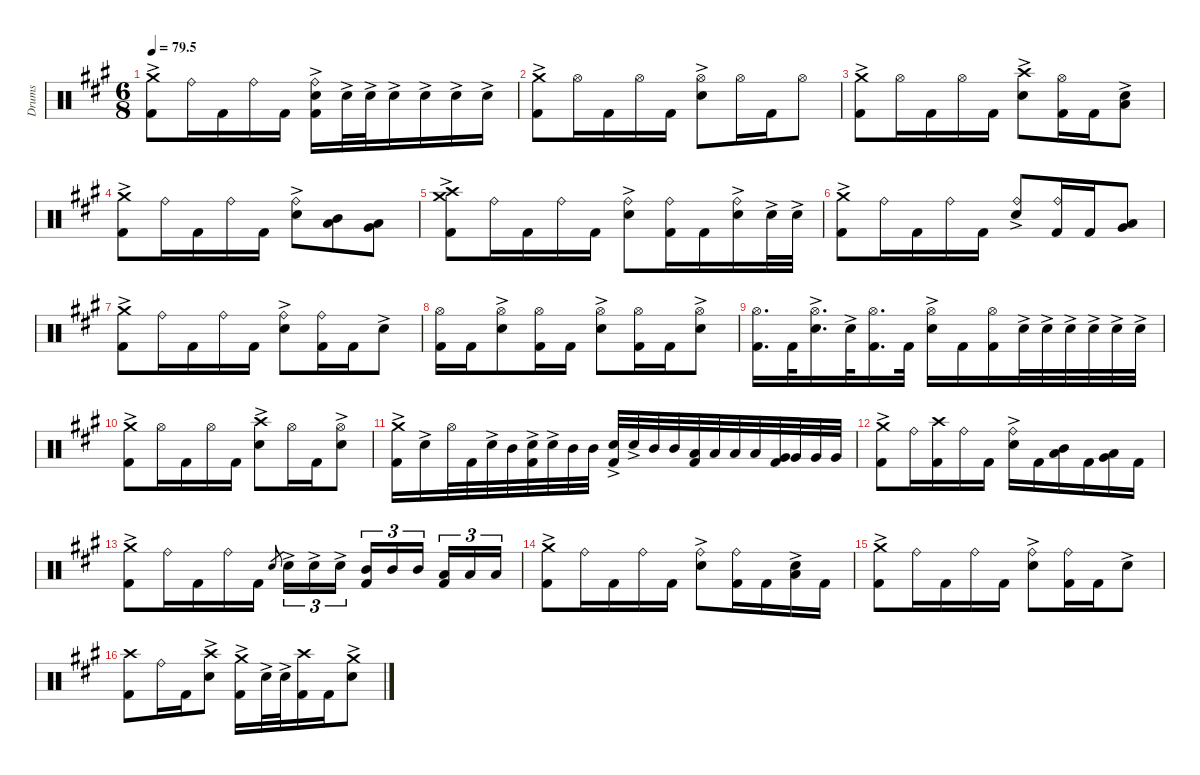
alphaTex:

\defaultSystemsLayout 4
\hideDynamics
\bracketExtendMode nobrackets
\otherSystemsTrackNameOrientation horizontal
\track ("Drumkit-show" "Drums") {mute instrument percussion}
\staff {score}
\articulation defaults
\ts (6 8)
\tempo
79.5
\accidentals auto
\clef neutral
\ottava regular
\simile none
\ks a
("Crash medium (hit)"{ac acc forcenatural} "Kick (hit) 2"{acc forcenatural}).8{dy f beam Down} "Ride (bell)"{acc forcenatural}.16{beam Down} "Kick (hit) 2"{acc forcenatural}.16{beam Down} "Ride (bell)"{acc forcenatural}.16{beam Down} "Kick (hit) 2"{acc forcenatural}.16{beam Down} ("Ride (bell)"{acc forcenatural} "Snare (hit) 2"{ac acc forcenatural} "Kick (hit) 2"{acc forcenatural}).16{beam Down} "Snare (hit) 2"{ac acc forcenatural}.32{beam Down} "Snare (hit) 2"{ac acc forcenatural}.32{beam Down} "Snare (hit) 2"{ac acc forcenatural}.16{beam Down} "Snare (hit) 2"{ac acc forcenatural}.16{beam Down} "Snare (hit) 2"{ac acc forcenatural}.16{beam Down} "Snare (hit) 2"{ac acc forcenatural}.16{beam Down} |
("Crash medium (hit)"{ac acc forcenatural} "Kick (hit) 2"{acc forcenatural}).8{beam Down} "Hi-Hat (open)"{acc forcenatural}.16{beam Down} "Kick (hit) 2"{acc forcenatural}.16{beam Down} "Hi-Hat (open)"{acc forcenatural}.16{beam Down} "Kick (hit) 2"{acc forcenatural}.16{beam Down} ("Hi-Hat (open)"{acc forcenatural} "Snare (hit) 2"{ac acc forcenatural}).8{beam Down} "Hi-Hat (open)"{acc forcenatural}.16{beam Down} "Kick (hit) 2"{acc forcenatural}.16{beam Down} "Hi-Hat (open)"{acc forcenatural}.8{beam Down} |
("Crash medium (hit)"{ac acc forcenatural} "Kick (hit) 2"{acc forcenatural}).8{beam Down} "Hi-Hat (open)"{acc forcenatural}.16{beam Down} "Kick (hit) 2"{acc forcenatural}.16{beam Down} "Hi-Hat (open)"{acc forcenatural}.16{beam Down} "Kick (hit) 2"{acc forcenatural}.16{beam Down} ("Crash high (hit)"{acc forcenatural} "Snare (hit) 2"{ac acc forcenatural}).8{beam Down} ("Hi-Hat (open)"{acc forcenatural} "Kick (hit) 2"{acc forcenatural}).16{beam Down} "Kick (hit) 2"{acc forcenatural}.16{beam Down} ("Snare (hit) 2"{ac acc forcenatural} "Low Tom (hit)"{acc forcenatural}).8{beam Down} |
("Crash medium (hit)"{ac acc forcenatural} "Kick (hit) 2"{acc forcenatural}).8{beam Down} "Ride (bell)"{acc forcenatural}.16{beam Down} "Kick (hit) 2"{acc forcenatural}.16{beam Down} "Ride (bell)"{acc forcenatural}.16{beam Down} "Kick (hit) 2"{acc forcenatural}.16{beam Down} ("Ride (bell)"{acc forcenatural} "Snare (hit) 2"{ac acc forcenatural}).8{beam Down} ("Mid Tom (hit)"{acc forcenatural} "Low Tom (hit)"{acc forcenatural}).8{beam Down} ("Low Tom (hit)"{acc forcenatural} "Very Low Tom (hit)"{acc forcenatural}).8{beam Down} |
("Crash medium (hit)"{ac acc forcenatural} "Crash high (hit)"{acc forcenatural} "Kick (hit) 2"{acc forcenatural}).8{beam Down} "Ride (bell)"{acc forcenatural}.16{beam Down} "Kick (hit) 2"{acc forcenatural}.16{beam Down} "Ride (bell)"{acc forcenatural}.16{beam Down} "Kick (hit) 2"{acc forcenatural}.16{beam Down} ("Ride (bell)"{acc forcenatural} "Snare (hit) 2"{ac acc forcenatural}).8{beam Down} ("Ride (bell)"{acc forcenatural} "Kick (hit) 2"{acc forcenatural}).16{beam Down} "Kick (hit) 2"{acc forcenatural}.16{beam Down} ("Ride (bell)"{acc forcenatural} "Snare (hit) 2"{ac acc forcenatural}).16{beam Down} "Snare (hit) 2"{ac acc forcenatural}.32{beam Down} "Snare (hit) 2"{ac acc forcenatural}.32{beam Down} |
("Crash medium (hit)"{ac acc forcenatural} "Kick (hit) 2"{acc forcenatural}).8{beam Down} "Ride (bell)"{acc forcenatural}.16{beam Down} "Kick (hit) 2"{acc forcenatural}.16{beam Down} "Ride (bell)"{acc forcenatural}.16{beam Down} "Kick (hit) 2"{acc forcenatural}.16{beam Down} ("Ride (bell)"{acc forcenatural} "Snare (hit) 2"{ac acc forcenatural}).8{beam Up} ("Ride (bell)"{acc forcenatural} "Kick (hit) 2"{acc forcenatural}).16{beam Up} "Kick (hit) 2"{acc forcenatural}.16{beam Up} ("Low Tom (hit)"{acc forcenatural} "Very Low Tom (hit)"{acc forcenatural}).8{beam Up} |
("Crash medium (hit)"{ac acc forcenatural} "Kick (hit) 2"{acc forcenatural}).8{beam Down} "Ride (bell)"{acc forcenatural}.16{beam Down} "Kick (hit) 2"{acc forcenatural}.16{beam Down} "Ride (bell)"{acc forcenatural}.16{beam Down} "Kick (hit) 2"{acc forcenatural}.16{beam Down} ("Ride (bell)"{acc forcenatural} "Snare (hit) 2"{ac acc forcenatural}).8{beam Down} ("Ride (bell)"{acc forcenatural} "Kick (hit) 2"{acc forcenatural}).16{beam Down} "Kick (hit) 2"{acc forcenatural}.16{beam Down} "Snare (hit) 2"{ac acc forcenatural}.8{beam Down} |
("Hi-Hat (open)"{acc forcenatural} "Kick (hit) 2"{acc forcenatural}).16{beam Down} "Kick (hit) 2"{acc forcenatural}.16{beam Down} ("Hi-Hat (open)"{acc forcenatural} "Snare (hit) 2"{ac acc forcenatural}).8{beam Down} ("Hi-Hat (open)"{acc forcenatural} "Kick (hit) 2"{acc forcenatural}).16{beam Down} "Kick (hit) 2"{acc forcenatural}.16{beam Down} ("Hi-Hat (open)"{acc forcenatural} "Snare (hit) 2"{ac acc forcenatural}).8{beam Down} ("Hi-Hat (open)"{acc forcenatural} "Kick (hit) 2"{acc forcenatural}).16{beam Down} "Kick (hit) 2"{acc forcenatural}.16{beam Down} ("Hi-Hat (open)"{acc forcenatural} "Snare (hit) 2"{ac acc forcenatural}).8{beam Down} |
("Hi-Hat (open)"{acc forcenatural} "Kick (hit) 2"{acc forcenatural}).16{d beam Down} "Kick (hit) 2"{acc forcenatural}.32{beam Down} ("Hi-Hat (open)"{acc forcenatural} "Snare (hit) 2"{ac acc forcenatural}).16{d beam Down} "Snare (hit) 2"{ac acc forcenatural}.32{beam Down} ("Hi-Hat (open)"{acc forcenatural} "Kick (hit) 2"{acc forcenatural}).16{d beam Down} "Kick (hit) 2"{acc forcenatural}.32{beam Down} ("Hi-Hat (open)"{acc forcenatural} "Snare (hit) 2"{ac acc forcenatural}).16{beam Down} "Kick (hit) 2"{acc forcenatural}.16{beam Down} ("Hi-Hat (open)"{acc forcenatural} "Kick (hit) 2"{acc forcenatural}).16{beam Down} "Snare (hit) 2"{ac acc forcenatural}.32{beam Down} "Snare (hit) 2"{ac acc forcenatural}.32{beam Down} "Snare (hit) 2"{ac acc forcenatural}.32{beam Down} "Snare (hit) 2"{ac acc forcenatural}.32{beam Down} "Snare (hit) 2"{ac acc forcenatural}.32{beam Down} "Snare (hit) 2"{ac acc forcenatural}.32{beam Down} |
("Crash medium (hit)"{ac acc forcenatural} "Kick (hit) 2"{acc forcenatural}).8{beam Down} "Hi-Hat (open)"{acc forcenatural}.16{beam Down} "Kick (hit) 2"{acc forcenatural}.16{beam Down} "Hi-Hat (open)"{acc forcenatural}.16{beam Down} "Kick (hit) 2"{acc forcenatural}.16{beam Down} ("Crash high (hit)"{acc forcenatural} "Snare (hit) 2"{ac acc forcenatural}).8{beam Down} "Hi-Hat (open)"{acc forcenatural}.16{beam Down} "Kick (hit) 2"{acc forcenatural}.16{beam Down} ("Hi-Hat (open)"{acc forcenatural} "Snare (hit) 2"{ac acc forcenatural}).8{beam Down} |
("Crash medium (hit)"{ac acc forcenatural} "Kick (hit) 2"{acc forcenatural}).16{beam Down} "Snare (hit) 2"{ac acc forcenatural}.16{beam Down} "Hi-Hat (open)"{acc forcenatural}.32{beam Down} "Kick (hit) 2"{acc forcenatural}.32{beam Down} "Snare (hit) 2"{ac acc forcenatural}.32{beam Down} "Mid Tom (hit)"{acc forcenatural}.32{beam Down} ("Snare (hit) 2"{ac acc forcenatural} "Kick (hit) 2"{acc forcenatural}).32{beam Down} "Snare (hit) 2"{ac acc forcenatural}.32{beam Down} "Mid Tom (hit)"{acc forcenatural}.32{beam Down} "Mid Tom (hit)"{acc forcenatural}.32{beam Down} ("Snare (hit) 2"{ac acc forcenatural} "Kick (hit) 2"{acc forcenatural}).32{beam Up} "Snare (hit) 2"{ac acc forcenatural}.32{beam Up} "Mid Tom (hit)"{acc forcenatural}.32{beam Up} "Mid Tom (hit)"{acc forcenatural}.32{beam Up} ("Low Tom (hit)"{acc forcenatural} "Kick (hit) 2"{acc forcenatural}).32{beam Up} "Low Tom (hit)"{acc forcenatural}.32{beam Up} "Low Tom (hit)"{acc forcenatural}.32{beam Up} "Low Tom (hit)"{acc forcenatural}.32{beam Up} ("Very Low Tom (hit)"{acc forcenatural} "Kick (hit) 2"{acc forcenatural}).32{beam Up} "Very Low Tom (hit)"{acc forcenatural}.32{beam Up} "Very Low Tom (hit)"{acc forcenatural}.32{beam Up} "Very Low Tom (hit)"{acc forcenatural}.32{beam Up} |
("Crash medium (hit)"{ac acc forcenatural} "Kick (hit) 2"{acc forcenatural}).8{beam Down} "Ride (bell)"{acc forcenatural}.16{beam Down} ("Crash high (hit)"{acc forcenatural} "Kick (hit) 2"{acc forcenatural}).16{beam Down} "Ride (bell)"{acc forcenatural}.16{beam Down} "Kick (hit) 2"{acc forcenatural}.16{beam Down} ("Ride (bell)"{acc forcenatural} "Snare (hit) 2"{ac acc forcenatural}).16{beam Down} "Kick (hit) 2"{acc forcenatural}.16{beam Down} ("Mid Tom (hit)"{acc forcenatural} "Low Tom (hit)"{acc forcenatural}).16{beam Down} "Kick (hit) 2"{acc forcenatural}.16{beam Down} ("Low Tom (hit)"{acc forcenatural} "Very Low Tom (hit)"{acc forcenatural}).16{beam Down} "Kick (hit) 2"{acc forcenatural}.16{beam Down} |
("Crash medium (hit)"{ac acc forcenatural} "Kick (hit) 2"{acc forcenatural}).8{beam Down} "Ride (bell)"{acc forcenatural}.16{beam Down} "Kick (hit) 2"{acc forcenatural}.16{beam Down} "Ride (bell)"{acc forcenatural}.16{beam Down} "Kick (hit) 2"{acc forcenatural}.16{beam Down} "Snare (hit) 2"{acc forcenatural}.8{gr beam Up} "Snare (hit) 2"{ac acc forcenatural}.16{tu (3 2) beam Down} "Snare (hit) 2"{ac acc forcenatural}.16{tu (3 2) beam Down} "Snare (hit) 2"{ac acc forcenatural}.16{tu (3 2) beam Down} ("Mid Tom (hit)"{acc forcenatural} "Kick (hit) 2"{acc forcenatural}).16{tu (3 2) beam Up} "Mid Tom (hit)"{acc forcenatural}.16{tu (3 2) beam Up} "Mid Tom (hit)"{acc forcenatural}.16{tu (3 2) beam Up} ("Low Tom (hit)"{acc forcenatural} "Kick (hit) 2"{acc forcenatural}).16{tu (3 2) beam Up} "Low Tom (hit)"{acc forcenatural}.16{tu (3 2) beam Up} "Low Tom (hit)"{acc forcenatural}.16{tu (3 2) beam Up} |
("Crash medium (hit)"{ac acc forcenatural} "Kick (hit) 2"{acc forcenatural}).8{beam Down} "Ride (bell)"{acc forcenatural}.16{beam Down} "Kick (hit) 2"{acc forcenatural}.16{beam Down} "Ride (bell)"{acc forcenatural}.16{beam Down} "Kick (hit) 2"{acc forcenatural}.16{beam Down} ("Ride (bell)"{acc forcenatural} "Snare (hit) 2"{ac acc forcenatural}).8{beam Down} ("Ride (bell)"{acc forcenatural} "Kick (hit) 2"{acc forcenatural}).16{beam Down} "Kick (hit) 2"{acc forcenatural}.16{beam Down} ("Snare (hit) 2"{ac acc forcenatural} "Low Tom (hit)"{acc forcenatural}).16{beam Down} "Kick (hit) 2"{acc forcenatural}.16{beam Down} |
("Crash medium (hit)"{ac acc forcenatural} "Kick (hit) 2"{acc forcenatural}).8{beam Down} "Ride (bell)"{acc forcenatural}.16{beam Down} "Kick (hit) 2"{acc forcenatural}.16{beam Down} "Ride (bell)"{acc forcenatural}.16{beam Down} "Kick (hit) 2"{acc forcenatural}.16{beam Down} ("Ride (bell)"{acc forcenatural} "Snare (hit) 2"{ac acc forcenatural}).8{beam Down} ("Ride (bell)"{acc forcenatural} "Kick (hit) 2"{acc forcenatural}).16{beam Down} "Kick (hit) 2"{acc forcenatural}.16{beam Down} "Snare (hit) 2"{ac acc forcenatural}.8{beam Down} |
("Crash high (hit)"{acc forcenatural} "Kick (hit) 2"{acc forcenatural}).8{beam Down} "Ride (bell)"{acc forcenatural}.16{beam Down} "Kick (hit) 2"{acc forcenatural}.16{beam Down} ("Crash high (hit)"{acc forcenatural} "Snare (hit) 2"{ac acc forcenatural}).8{beam Down} ("Crash medium (hit)"{ac acc forcenatural} "Kick (hit) 2"{acc forcenatural}).16{beam Down} "Snare (hit) 2"{ac acc forcenatural}.32{beam Down} "Snare (hit) 2"{ac acc forcenatural}.32{beam Down} ("Crash high (hit)"{acc forcenatural} "Kick (hit) 2"{acc forcenatural}).16{beam Down} "Kick (hit) 2"{acc forcenatural}.16{beam Down} ("Crash medium (hit)"{ac acc forcenatural} "Snare (hit) 2"{ac acc forcenatural}).8{beam Down}
